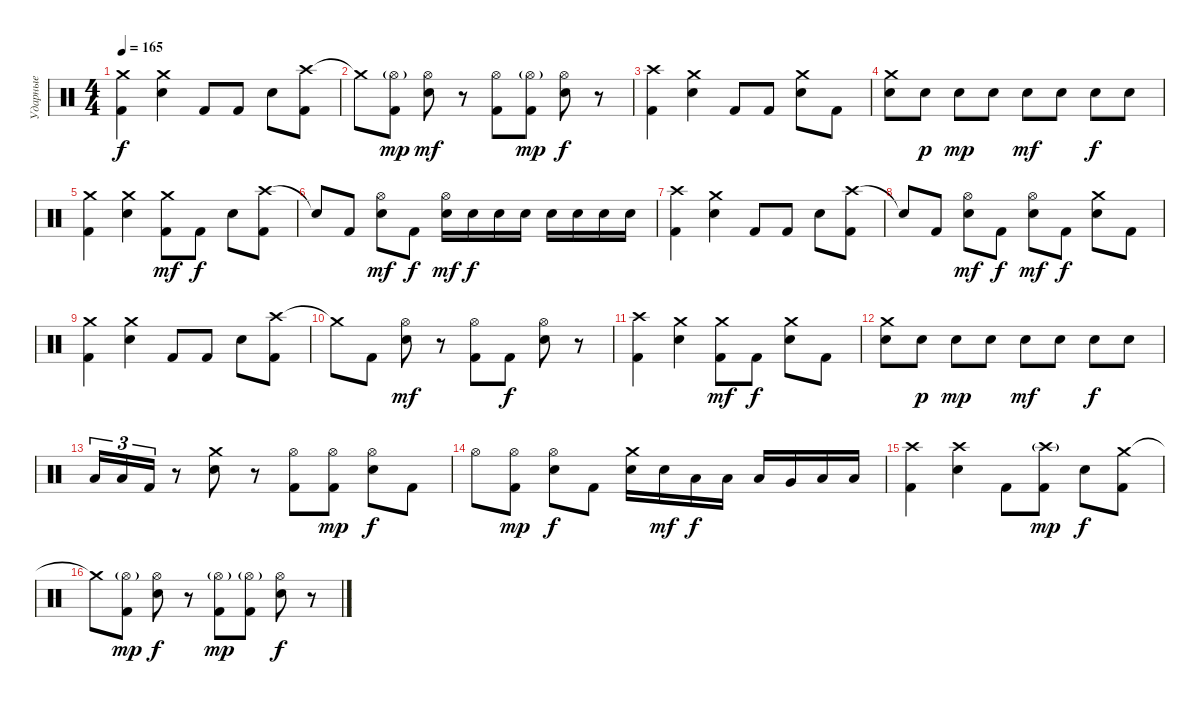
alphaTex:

\track ("Ударные" "Ударные") {instrument percussion}
\staff {score}
\articulation defaults
\ts (4 4)
\tempo 165
\clef neutral
\ks c
("Crash medium (hit)" "Kick (hit) 2").4{dy f} ("Crash medium (hit)" "Snare (hit) 2").4 "Kick (hit) 2".8 "Kick (hit) 2".8 "Snare (hit) 2".8 ("Crash high (hit)" "Kick (hit) 2").8 |
"Crash medium (hit)"{t}.8 ("Hi-Hat (open)"{g} "Kick (hit) 2").8{dy mp} ("Hi-Hat (open)" "Snare (hit) 2").8{dy mf} r.8 ("Hi-Hat (open)" "Kick (hit) 2").8 ("Hi-Hat (open)"{g} "Kick (hit) 2").8{dy mp} ("Hi-Hat (open)" "Snare (hit) 2").8{dy f} r.8 |
("Crash high (hit)" "Kick (hit) 2").4 ("Crash medium (hit)" "Snare (hit) 2").4 "Kick (hit) 2".8 "Kick (hit) 2".8 ("Crash medium (hit)" "Snare (hit) 2").8 "Kick (hit) 2".8 |
("Crash medium (hit)" "Snare (hit) 2").8 "Snare (hit) 2".8{dy p} "Snare (hit) 2".8{dy mp} "Snare (hit) 2".8 "Snare (hit) 2".8{dy mf} "Snare (hit) 2".8 "Snare (hit) 2".8{dy f} "Snare (hit) 2".8 |
("Crash medium (hit)" "Kick (hit) 2").4 ("Crash medium (hit)" "Snare (hit) 2").4 ("Crash medium (hit)" "Kick (hit) 2").8{dy mf} "Kick (hit) 2".8{dy f} "Snare (hit) 2".8 ("Crash high (hit)" "Kick (hit) 2").8 |
"Snare (hit)"{t}.8 "Kick (hit) 2".8 ("Hi-Hat (open)" "Snare (hit) 2").8{dy mf} "Kick (hit) 2".8{dy f} ("Hi-Hat (open)" "Snare (hit) 2").16{dy mf} "Snare (hit) 2".16{dy f} "Snare (hit) 2".16 "Snare (hit) 2".16 "Snare (hit) 2".16 "Snare (hit) 2".16 "Snare (hit) 2".16 "Snare (hit) 2".16 |
("Crash high (hit)" "Kick (hit) 2").4 ("Crash medium (hit)" "Snare (hit) 2").4 "Kick (hit) 2".8 "Kick (hit) 2".8 "Snare (hit) 2".8 ("Crash high (hit)" "Kick (hit) 2").8 |
"Snare (hit)"{t}.8 "Kick (hit) 2".8 ("Hi-Hat (open)" "Snare (hit) 2").8{dy mf} "Kick (hit) 2".8{dy f} ("Hi-Hat (open)" "Snare (hit) 2").8{dy mf} "Kick (hit) 2".8{dy f} ("Crash medium (hit)" "Snare (hit) 2").8 "Kick (hit) 2".8 |
("Crash medium (hit)" "Kick (hit) 2").4 ("Crash medium (hit)" "Snare (hit) 2").4 "Kick (hit) 2".8 "Kick (hit) 2".8 "Snare (hit) 2".8 ("Crash high (hit)" "Kick (hit) 2").8 |
"Crash medium (hit)"{t}.8 "Kick (hit) 2".8 ("Hi-Hat (open)" "Snare (hit) 2").8{dy mf} r.8 ("Hi-Hat (open)" "Kick (hit) 2").8 "Kick (hit) 2".8{dy f} ("Hi-Hat (open)" "Snare (hit) 2").8 r.8 |
("Crash high (hit)" "Kick (hit) 2").4 ("Crash medium (hit)" "Snare (hit) 2").4 ("Crash medium (hit)" "Kick (hit) 2").8{dy mf} "Kick (hit) 2".8{dy f} ("Crash medium (hit)" "Snare (hit) 2").8 "Kick (hit) 2".8 |
("Crash medium (hit)" "Snare (hit) 2").8 "Snare (hit) 2".8{dy p} "Snare (hit) 2".8{dy mp} "Snare (hit) 2".8 "Snare (hit) 2".8{dy mf} "Snare (hit) 2".8 "Snare (hit) 2".8{dy f} "Snare (hit) 2".8 |
"Low Tom (hit)".16{tu (3 2)} "Low Tom (hit)".16{tu (3 2)} "Kick (hit) 2".16{tu (3 2)} r.8 ("Crash medium (hit)" "Snare (hit) 2").8 r.8 ("Hi-Hat (open)" "Kick (hit) 2").8 ("Hi-Hat (open)" "Kick (hit) 2").8{dy mp} ("Hi-Hat (open)" "Snare (hit) 2").8{dy f} "Kick (hit) 2".8 |
"Hi-Hat (open)".8 ("Hi-Hat (open)" "Kick (hit) 2").8{dy mp} ("Hi-Hat (open)" "Snare (hit) 2").8{dy f} "Kick (hit) 2".8 ("Crash medium (hit)" "Snare (hit) 2").16 "Snare (hit) 2".16{dy mf} "Low Tom (hit)".16{dy f} "Low Tom (hit)".16 "Low Tom (hit)".16 "Very Low Tom (hit)".16 "Low Floor Tom (hit)".16 "Low Floor Tom (hit)".16 |
("Crash high (hit)" "Kick (hit) 2").4 ("Crash high (hit)" "Snare (hit) 2").4 "Kick (hit) 2".8 ("Crash high (hit)"{g} "Kick (hit) 2").8{dy mp} "Snare (hit) 2".8{dy f} ("Crash medium (hit)" "Kick (hit) 2").8 |
"Crash medium (hit)"{t}.8 ("Hi-Hat (open)"{g} "Kick (hit) 2").8{dy mp} ("Hi-Hat (open)" "Snare (hit) 2").8{dy f} r.8 ("Hi-Hat (open)"{g} "Kick (hit) 2").8{dy mp} ("Hi-Hat (open)"{g} "Kick (hit) 2").8 ("Hi-Hat (open)" "Snare (hit) 2").8{dy f} r.8
